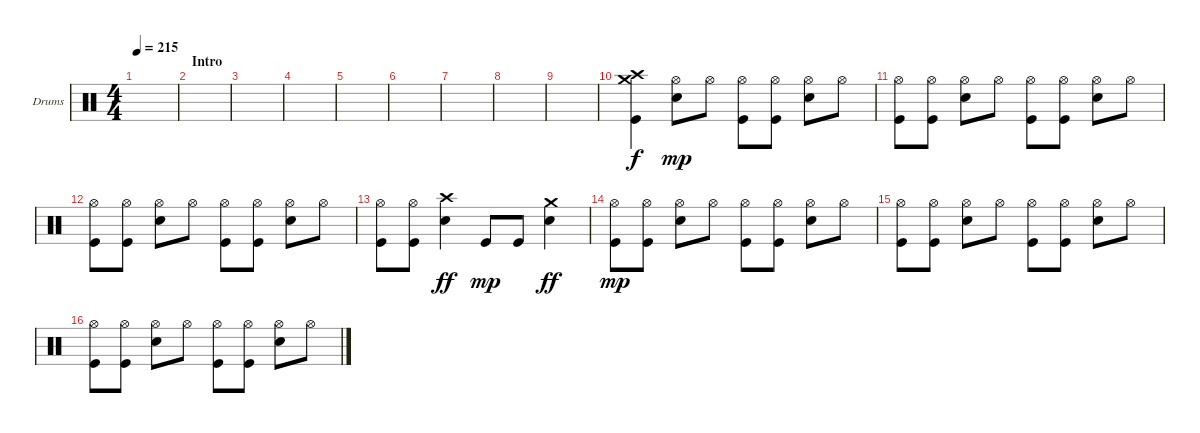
\bracketExtendMode groupsimilarinstruments
\firstSystemTrackNameOrientation horizontal
\otherSystemsTrackNameOrientation horizontal
\track ("Drumkit" "Drums") {instrument percussion}
\staff {score}
\articulation defaults
\ts (4 4)
\tempo 215
\clef neutral
\ks c
|
\section ("" "Intro")
|
|
|
|
|
|
|
|
("Crash medium (hit)" "Crash high (hit)" "Kick (hit)").4 ("Hi-Hat (open)" "Snare (hit) 2").8{dy mp} "Hi-Hat (open)".8 ("Hi-Hat (open)" "Kick (hit)").8 ("Hi-Hat (open)" "Kick (hit)").8 ("Hi-Hat (open)" "Snare (hit) 2").8 "Hi-Hat (open)".8 |
("Hi-Hat (open)" "Kick (hit)").8 ("Hi-Hat (open)" "Kick (hit)").8 ("Hi-Hat (open)" "Snare (hit) 2").8 "Hi-Hat (open)".8 ("Hi-Hat (open)" "Kick (hit)").8 ("Hi-Hat (open)" "Kick (hit)").8 ("Hi-Hat (open)" "Snare (hit) 2").8 "Hi-Hat (open)".8 |
("Hi-Hat (open)" "Kick (hit)").8 ("Hi-Hat (open)" "Kick (hit)").8 ("Hi-Hat (open)" "Snare (hit) 2").8 "Hi-Hat (open)".8 ("Hi-Hat (open)" "Kick (hit)").8 ("Hi-Hat (open)" "Kick (hit)").8 ("Hi-Hat (open)" "Snare (hit) 2").8 "Hi-Hat (open)".8 |
("Hi-Hat (open)" "Kick (hit)").8 ("Hi-Hat (open)" "Kick (hit)").8 ("Crash high (hit)" "Snare (hit) 2").4{dy ff} "Kick (hit)".8{dy mp} "Kick (hit)".8 ("Crash medium (hit)" "Snare (hit) 2").4{dy ff} |
("Hi-Hat (open)" "Kick (hit)").8{dy mp} ("Hi-Hat (open)" "Kick (hit)").8 ("Hi-Hat (open)" "Snare (hit) 2").8 "Hi-Hat (open)".8 ("Hi-Hat (open)" "Kick (hit)").8 ("Hi-Hat (open)" "Kick (hit)").8 ("Hi-Hat (open)" "Snare (hit) 2").8 "Hi-Hat (open)".8 |
("Hi-Hat (open)" "Kick (hit)").8 ("Hi-Hat (open)" "Kick (hit)").8 ("Hi-Hat (open)" "Snare (hit) 2").8 "Hi-Hat (open)".8 ("Hi-Hat (open)" "Kick (hit)").8 ("Hi-Hat (open)" "Kick (hit)").8 ("Hi-Hat (open)" "Snare (hit) 2").8 "Hi-Hat (open)".8 |
("Hi-Hat (open)" "Kick (hit)").8 ("Hi-Hat (open)" "Kick (hit)").8 ("Hi-Hat (open)" "Snare (hit) 2").8 "Hi-Hat (open)".8 ("Hi-Hat (open)" "Kick (hit)").8 ("Hi-Hat (open)" "Kick (hit)").8 ("Hi-Hat (open)" "Snare (hit) 2").8 "Hi-Hat (open)".8
